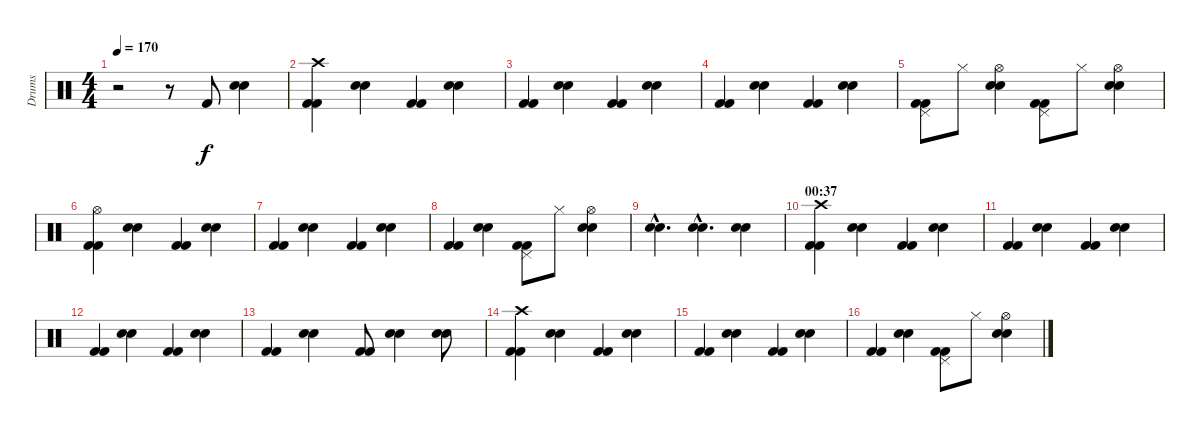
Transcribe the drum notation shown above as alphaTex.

\track ("Drums" "Drums") {instrument percussion}
\staff {score}
\articulation defaults
\ts (4 4)
\tempo 170
\clef neutral
\ks c
r.2{dy f} r.8 "Kick (hit) 2".8 ("Snare (hit) 2" "Hand Clap (hit)").4 |
("Kick (hit) 2" "Kick (hit) 2" "Crash high (hit)").4 ("Snare (hit) 2" "Hand Clap (hit)").4 ("Kick (hit) 2" "Kick (hit) 2").4 ("Snare (hit) 2" "Hand Clap (hit)").4 |
("Kick (hit) 2" "Kick (hit) 2").4 ("Snare (hit) 2" "Hand Clap (hit)").4 ("Kick (hit) 2" "Kick (hit) 2").4 ("Snare (hit) 2" "Hand Clap (hit)").4 |
("Kick (hit) 2" "Kick (hit) 2").4 ("Snare (hit) 2" "Hand Clap (hit)").4 ("Kick (hit) 2" "Kick (hit) 2").4 ("Snare (hit) 2" "Hand Clap (hit)").4 |
("Kick (hit) 2" "Kick (hit) 2" "Pedal Hi-Hat (hit)").8 "Hi-Hat (closed)".8 ("Snare (hit) 2" "Hand Clap (hit)" "Hi-Hat (open)").4 ("Kick (hit) 2" "Kick (hit) 2" "Pedal Hi-Hat (hit)").8 "Hi-Hat (closed)".8 ("Snare (hit) 2" "Hand Clap (hit)" "Hi-Hat (open)").4 |
("Kick (hit) 2" "Kick (hit) 2" "Hi-Hat (open)").4 ("Snare (hit) 2" "Hand Clap (hit)").4 ("Kick (hit) 2" "Kick (hit) 2").4 ("Snare (hit) 2" "Hand Clap (hit)").4 |
("Kick (hit) 2" "Kick (hit) 2").4 ("Snare (hit) 2" "Hand Clap (hit)").4 ("Kick (hit) 2" "Kick (hit) 2").4 ("Snare (hit) 2" "Hand Clap (hit)").4 |
("Kick (hit) 2" "Kick (hit) 2").4 ("Snare (hit) 2" "Hand Clap (hit)").4 ("Kick (hit) 2" "Kick (hit) 2" "Pedal Hi-Hat (hit)").8 "Hi-Hat (closed)".8 ("Snare (hit) 2" "Hand Clap (hit)" "Hi-Hat (open)").4 |
("Snare (hit) 2"{hac} "Electric Snare (hit)"{hac}).4{d} ("Snare (hit) 2"{hac} "Electric Snare (hit)"{hac}).4{d} ("Snare (hit) 2" "Electric Snare (hit)").4 |
\section ("" "00:37")
("Kick (hit) 2" "Kick (hit) 2" "Crash high (hit)").4 ("Snare (hit) 2" "Hand Clap (hit)").4 ("Kick (hit) 2" "Kick (hit) 2").4 ("Snare (hit) 2" "Hand Clap (hit)").4 |
("Kick (hit) 2" "Kick (hit) 2").4 ("Snare (hit) 2" "Hand Clap (hit)").4 ("Kick (hit) 2" "Kick (hit) 2").4 ("Snare (hit) 2" "Hand Clap (hit)").4 |
("Kick (hit) 2" "Kick (hit) 2").4 ("Snare (hit) 2" "Hand Clap (hit)").4 ("Kick (hit) 2" "Kick (hit) 2").4 ("Snare (hit) 2" "Hand Clap (hit)").4 |
("Kick (hit) 2" "Kick (hit) 2").4 ("Snare (hit) 2" "Hand Clap (hit)").4 ("Kick (hit) 2" "Kick (hit) 2").8 ("Snare (hit) 2" "Hand Clap (hit)").4 ("Snare (hit) 2" "Hand Clap (hit)").8 |
("Kick (hit) 2" "Kick (hit) 2" "Crash high (hit)").4 ("Snare (hit) 2" "Hand Clap (hit)").4 ("Kick (hit) 2" "Kick (hit) 2").4 ("Snare (hit) 2" "Hand Clap (hit)").4 |
("Kick (hit) 2" "Kick (hit) 2").4 ("Snare (hit) 2" "Hand Clap (hit)").4 ("Kick (hit) 2" "Kick (hit) 2").4 ("Snare (hit) 2" "Hand Clap (hit)").4 |
("Kick (hit) 2" "Kick (hit) 2").4 ("Snare (hit) 2" "Hand Clap (hit)").4 ("Kick (hit) 2" "Kick (hit) 2" "Pedal Hi-Hat (hit)").8 "Hi-Hat (closed)".8 ("Snare (hit) 2" "Hand Clap (hit)" "Hi-Hat (open)").4
